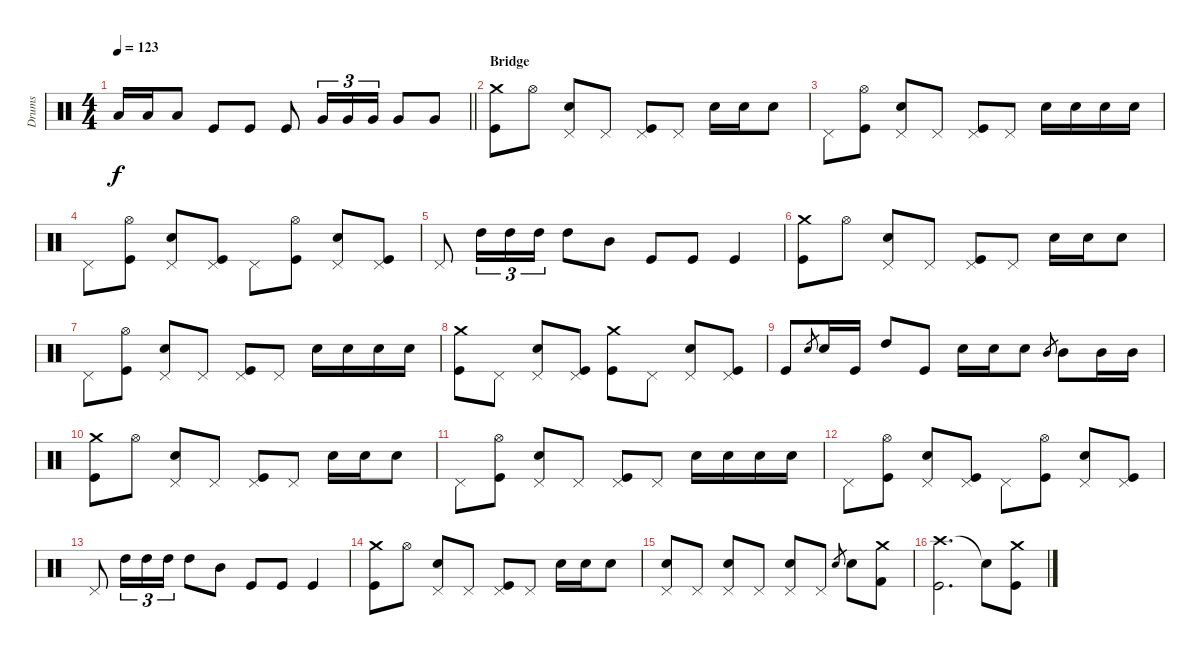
\track ("Drums" "Drums") {instrument percussion}
\staff {score}
\articulation defaults
\ts (4 4)
\tempo 123
\clef neutral
\barLineRight lightlight
\ks c "Low Tom (hit)".16{dy f} "Low Tom (hit)".16 "Low Tom (hit)".8 "Kick (hit)".8 "Kick (hit)".8 "Kick (hit)".8 "Very Low Tom (hit)".16{tu (3 2)} "Very Low Tom (hit)".16{tu (3 2)} "Very Low Tom (hit)".16{tu (3 2)} "Very Low Tom (hit)".8 "Very Low Tom (hit)".8
|
\section ("" "Bridge")
("Crash medium (hit)" "Kick (hit)").8 "Hi-Hat (open)".8 ("Pedal Hi-Hat (hit)" "Electric Snare (hit)").8 "Pedal Hi-Hat (hit)".8 ("Pedal Hi-Hat (hit)" "Kick (hit)").8 "Pedal Hi-Hat (hit)".8 "Electric Snare (hit)".16 "Electric Snare (hit)".16 "Electric Snare (hit)".8 |
"Pedal Hi-Hat (hit)".8 ("Hi-Hat (open)" "Kick (hit)").8 ("Pedal Hi-Hat (hit)" "Electric Snare (hit)").8 "Pedal Hi-Hat (hit)".8 ("Pedal Hi-Hat (hit)" "Kick (hit)").8 "Pedal Hi-Hat (hit)".8 "Electric Snare (hit)".16 "Electric Snare (hit)".16 "Electric Snare (hit)".16 "Electric Snare (hit)".16 |
"Pedal Hi-Hat (hit)".8 ("Hi-Hat (open)" "Kick (hit)").8 ("Pedal Hi-Hat (hit)" "Electric Snare (hit)").8 ("Pedal Hi-Hat (hit)" "Kick (hit)").8 "Pedal Hi-Hat (hit)".8 ("Hi-Hat (open)" "Kick (hit)").8 ("Pedal Hi-Hat (hit)" "Electric Snare (hit)").8 ("Pedal Hi-Hat (hit)" "Kick (hit)").8 |
"Pedal Hi-Hat (hit)".8 "High Tom (hit)".16{tu (3 2)} "High Tom (hit)".16{tu (3 2)} "High Tom (hit)".16{tu (3 2)} "High Tom (hit)".8 "Mid Tom (hit)".8 "Kick (hit)".8 "Kick (hit)".8 "Kick (hit)".4 |
("Crash medium (hit)" "Kick (hit)").8 "Hi-Hat (open)".8 ("Pedal Hi-Hat (hit)" "Electric Snare (hit)").8 "Pedal Hi-Hat (hit)".8 ("Pedal Hi-Hat (hit)" "Kick (hit)").8 "Pedal Hi-Hat (hit)".8 "Electric Snare (hit)".16 "Electric Snare (hit)".16 "Electric Snare (hit)".8 |
"Pedal Hi-Hat (hit)".8 ("Hi-Hat (open)" "Kick (hit)").8 ("Pedal Hi-Hat (hit)" "Electric Snare (hit)").8 "Pedal Hi-Hat (hit)".8 ("Pedal Hi-Hat (hit)" "Kick (hit)").8 "Pedal Hi-Hat (hit)".8 "Electric Snare (hit)".16 "Electric Snare (hit)".16 "Electric Snare (hit)".16 "Electric Snare (hit)".16 |
("Crash medium (hit)" "Kick (hit)").8 "Pedal Hi-Hat (hit)".8 ("Pedal Hi-Hat (hit)" "Electric Snare (hit)").8 ("Pedal Hi-Hat (hit)" "Kick (hit)").8 ("Crash medium (hit)" "Kick (hit)").8 "Pedal Hi-Hat (hit)".8 ("Pedal Hi-Hat (hit)" "Electric Snare (hit)").8 ("Pedal Hi-Hat (hit)" "Kick (hit)").8 |
"Kick (hit)".8 "Electric Snare (hit)".8{gr} "Electric Snare (hit)".16 "Kick (hit)".16 "High Tom (hit)".8 "Kick (hit)".8 "Electric Snare (hit)".16 "Electric Snare (hit)".16 "Electric Snare (hit)".8 "Mid Tom (hit)".8{gr} "Mid Tom (hit)".8 "Mid Tom (hit)".16 "Mid Tom (hit)".16 |
("Crash medium (hit)" "Kick (hit)").8 "Hi-Hat (open)".8 ("Pedal Hi-Hat (hit)" "Electric Snare (hit)").8 "Pedal Hi-Hat (hit)".8 ("Pedal Hi-Hat (hit)" "Kick (hit)").8 "Pedal Hi-Hat (hit)".8 "Electric Snare (hit)".16 "Electric Snare (hit)".16 "Electric Snare (hit)".8 |
"Pedal Hi-Hat (hit)".8 ("Hi-Hat (open)" "Kick (hit)").8 ("Pedal Hi-Hat (hit)" "Electric Snare (hit)").8 "Pedal Hi-Hat (hit)".8 ("Pedal Hi-Hat (hit)" "Kick (hit)").8 "Pedal Hi-Hat (hit)".8 "Electric Snare (hit)".16 "Electric Snare (hit)".16 "Electric Snare (hit)".16 "Electric Snare (hit)".16 |
"Pedal Hi-Hat (hit)".8 ("Hi-Hat (open)" "Kick (hit)").8 ("Pedal Hi-Hat (hit)" "Electric Snare (hit)").8 ("Pedal Hi-Hat (hit)" "Kick (hit)").8 "Pedal Hi-Hat (hit)".8 ("Hi-Hat (open)" "Kick (hit)").8 ("Pedal Hi-Hat (hit)" "Electric Snare (hit)").8 ("Pedal Hi-Hat (hit)" "Kick (hit)").8 |
"Pedal Hi-Hat (hit)".8 "High Tom (hit)".16{tu (3 2)} "High Tom (hit)".16{tu (3 2)} "High Tom (hit)".16{tu (3 2)} "High Tom (hit)".8 "Mid Tom (hit)".8 "Kick (hit)".8 "Kick (hit)".8 "Kick (hit)".4 |
("Crash medium (hit)" "Kick (hit)").8 "Hi-Hat (open)".8 ("Pedal Hi-Hat (hit)" "Electric Snare (hit)").8 "Pedal Hi-Hat (hit)".8 ("Pedal Hi-Hat (hit)" "Kick (hit)").8 "Pedal Hi-Hat (hit)".8 "Electric Snare (hit)".16 "Electric Snare (hit)".16 "Electric Snare (hit)".8 |
("Pedal Hi-Hat (hit)" "Electric Snare (hit)").8 "Pedal Hi-Hat (hit)".8 ("Pedal Hi-Hat (hit)" "Electric Snare (hit)").8 "Pedal Hi-Hat (hit)".8 ("Pedal Hi-Hat (hit)" "Electric Snare (hit)").8 "Pedal Hi-Hat (hit)".8 "Electric Snare (hit)".8{gr} "Electric Snare (hit)".8 ("Crash medium (hit)" "Kick (hit) 2").8 |
("Crash high (hit)" "Kick (hit)").2{d} "Snare (hit)"{t}.8 ("Crash medium (hit)" "Kick (hit)").8
